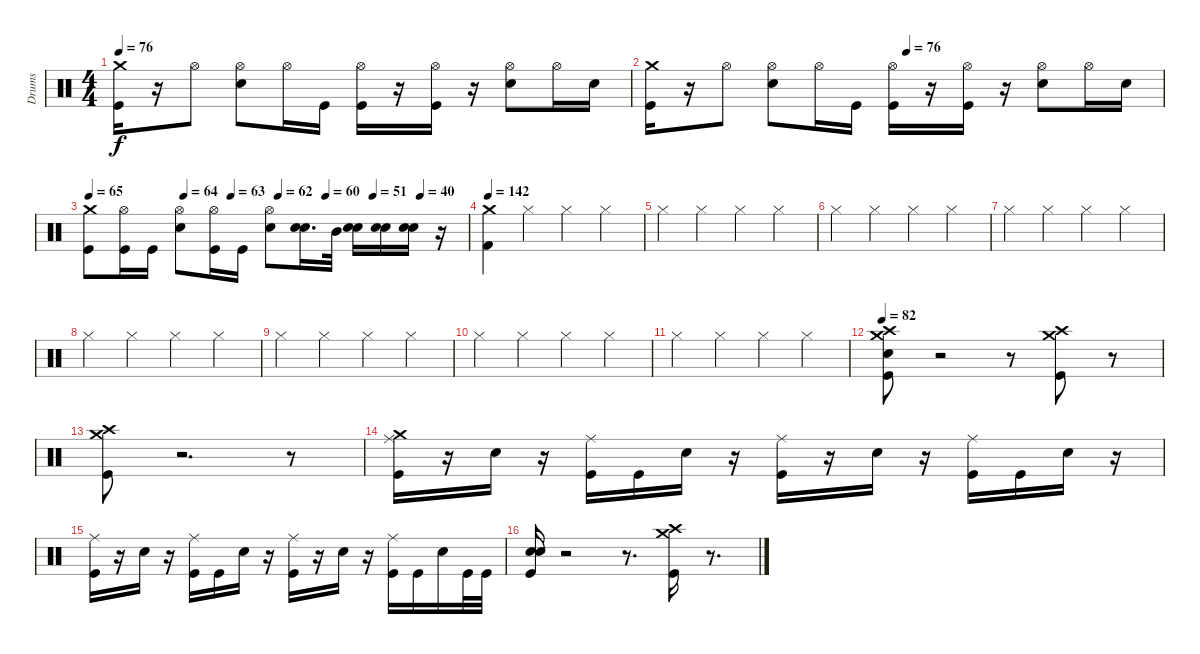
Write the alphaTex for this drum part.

\track ("Drums" "Drums") {instrument percussion}
\staff {score}
\articulation defaults
\ts (4 4)
\tempo 76
\clef neutral
\ks c
("Crash medium (hit)" "Kick (hit)").16{dy f} r.16 "Hi-Hat (open)".8 ("Hi-Hat (open)" "Electric Snare (hit)").8 "Hi-Hat (open)".16 "Kick (hit)".16 ("Hi-Hat (open)" "Kick (hit)").16 r.16 ("Kick (hit)" "Hi-Hat (open)").16 r.16 ("Hi-Hat (open)" "Electric Snare (hit)").8 "Hi-Hat (open)".16 "Electric Snare (hit)".16 |
\tempo (76 0.5)
("Crash medium (hit)" "Kick (hit)").16 r.16 "Hi-Hat (open)".8 ("Hi-Hat (open)" "Electric Snare (hit)").8 "Hi-Hat (open)".16 "Kick (hit)".16 ("Hi-Hat (open)" "Kick (hit)").16 r.16 ("Kick (hit)" "Hi-Hat (open)").16 r.16 ("Hi-Hat (open)" "Electric Snare (hit)").8 "Hi-Hat (open)".16 "Electric Snare (hit)".16 |
\tempo 65
\tempo (64 0.25)
\tempo (63 0.375)
\tempo (62 0.5)
\tempo (60 0.625)
\tempo (51 0.75)
\tempo (40 0.875)
("Crash medium (hit)" "Kick (hit)").8 ("Kick (hit)" "Hi-Hat (open)").16 "Kick (hit)".16 ("Hi-Hat (open)" "Electric Snare (hit)").8 ("Kick (hit)" "Hi-Hat (open)").16 "Kick (hit)".16 ("Electric Snare (hit)" "Hi-Hat (open)").8 ("Electric Snare (hit)" "Electric Snare (hit)").16{d} "Mid Tom (hit)".32 ("Electric Snare (hit)" "Electric Snare (hit)").16 ("Electric Snare (hit)" "Electric Snare (hit)").16 ("Electric Snare (hit)" "Electric Snare (hit)").16 r.16 |
\tempo 142
("Kick (hit) 2" "Crash medium (hit)").4{volume 14 balance 8} "Hi-Hat (closed)".4{volume 14 balance 8} "Hi-Hat (closed)".4 "Hi-Hat (closed)".4 |
"Hi-Hat (closed)".4 "Hi-Hat (closed)".4 "Hi-Hat (closed)".4 "Hi-Hat (closed)".4 |
"Hi-Hat (closed)".4 "Hi-Hat (closed)".4 "Hi-Hat (closed)".4 "Hi-Hat (closed)".4 |
"Hi-Hat (closed)".4 "Hi-Hat (closed)".4 "Hi-Hat (closed)".4 "Hi-Hat (closed)".4 |
"Hi-Hat (closed)".4 "Hi-Hat (closed)".4 "Hi-Hat (closed)".4 "Hi-Hat (closed)".4 |
"Hi-Hat (closed)".4 "Hi-Hat (closed)".4 "Hi-Hat (closed)".4 "Hi-Hat (closed)".4 |
"Hi-Hat (closed)".4 "Hi-Hat (closed)".4 "Hi-Hat (closed)".4 "Hi-Hat (closed)".4 |
"Hi-Hat (closed)".4 "Hi-Hat (closed)".4 "Hi-Hat (closed)".4 "Hi-Hat (closed)".4 |
\tempo 82
("Crash high (hit)" "Electric Snare (hit)" "Crash medium (hit)" "Kick (hit)").8 r.2 r.8 ("Crash high (hit)" "Crash medium (hit)" "Kick (hit)").8 r.8 |
("Kick (hit)" "Crash high (hit)" "Crash medium (hit)").8 r.2{d} r.8 |
("Crash medium (hit)" "Ride (middle)" "Kick (hit)").16 r.16 "Electric Snare (hit)".16 r.16 ("Ride (middle)" "Kick (hit)").16 "Kick (hit)".16 "Electric Snare (hit)".16 r.16 ("Ride (middle)" "Kick (hit)").16 r.16 "Electric Snare (hit)".16 r.16 ("Ride (middle)" "Kick (hit)").16 "Kick (hit)".16 "Electric Snare (hit)".16 r.16 |
("Kick (hit)" "Ride (middle)").16 r.16 "Electric Snare (hit)".16 r.16 ("Kick (hit)" "Ride (middle)").16 "Kick (hit)".16 "Electric Snare (hit)".16 r.16 ("Kick (hit)" "Ride (middle)").16 r.16 "Electric Snare (hit)".16 r.16 ("Ride (middle)" "Kick (hit)").16 "Kick (hit)".16 "Electric Snare (hit)".16 "Kick (hit)".32 "Kick (hit)".32 |
("Electric Snare (hit)" "Electric Snare (hit)" "Kick (hit)").16 r.2 r.8{d} ("Crash medium (hit)" "Crash high (hit)" "Kick (hit)").16 r.8{d}
